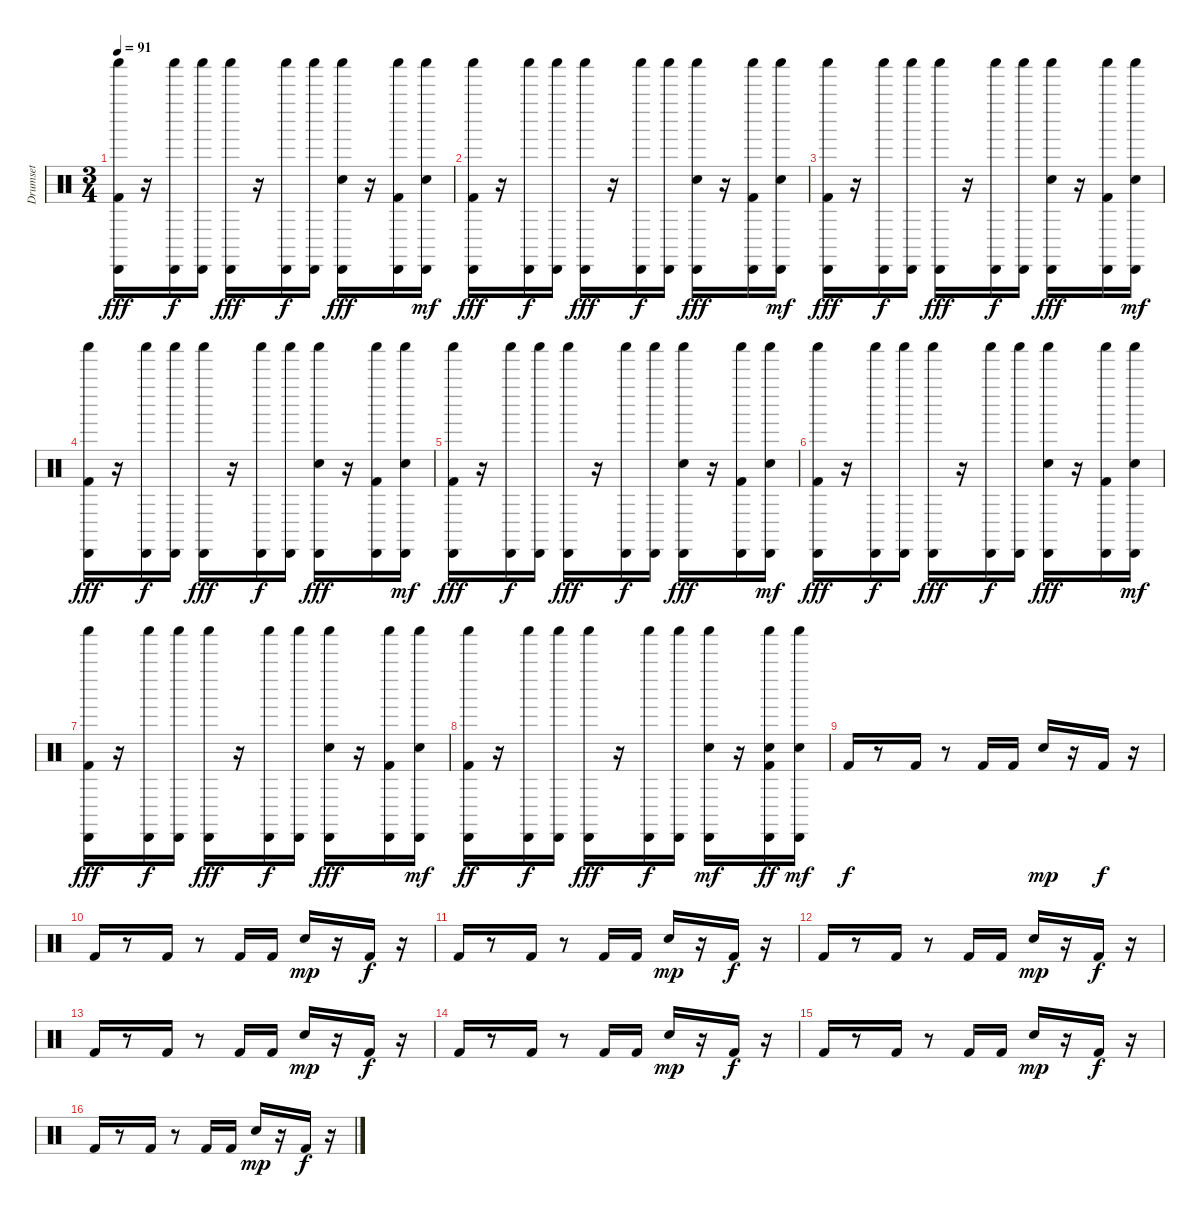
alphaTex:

\track ("Drumset" "Drumset") {instrument percussion}
\staff {score}
\articulation defaults
\ts (3 4)
\tempo 91
\clef neutral
\ks c
("Kick (hit) 2" "Shaker (hit)" "Cabasa (hit)").16{dy fff} r.16 ("Cabasa (hit)" "Shaker (hit)").16{dy f} ("Cabasa (hit)" "Shaker (hit)").16 ("Shaker (hit)" "Cabasa (hit)").16{dy fff} r.16 ("Cabasa (hit)" "Shaker (hit)").16{dy f} ("Cabasa (hit)" "Shaker (hit)").16 ("Snare (hit) 2" "Shaker (hit)" "Cabasa (hit)").16{dy fff} r.16 ("Shaker (hit)" "Cabasa (hit)" "Kick (hit) 2").16 ("Snare (hit) 2" "Cabasa (hit)" "Shaker (hit)").16{dy mf} |
("Kick (hit) 2" "Shaker (hit)" "Cabasa (hit)").16{dy fff} r.16 ("Cabasa (hit)" "Shaker (hit)").16{dy f} ("Cabasa (hit)" "Shaker (hit)").16 ("Shaker (hit)" "Cabasa (hit)").16{dy fff} r.16 ("Cabasa (hit)" "Shaker (hit)").16{dy f} ("Cabasa (hit)" "Shaker (hit)").16 ("Snare (hit) 2" "Shaker (hit)" "Cabasa (hit)").16{dy fff} r.16 ("Shaker (hit)" "Cabasa (hit)" "Kick (hit) 2").16 ("Snare (hit) 2" "Cabasa (hit)" "Shaker (hit)").16{dy mf} |
("Kick (hit) 2" "Shaker (hit)" "Cabasa (hit)").16{dy fff} r.16 ("Cabasa (hit)" "Shaker (hit)").16{dy f} ("Cabasa (hit)" "Shaker (hit)").16 ("Shaker (hit)" "Cabasa (hit)").16{dy fff} r.16 ("Cabasa (hit)" "Shaker (hit)").16{dy f} ("Cabasa (hit)" "Shaker (hit)").16 ("Snare (hit) 2" "Shaker (hit)" "Cabasa (hit)").16{dy fff} r.16 ("Shaker (hit)" "Cabasa (hit)" "Kick (hit) 2").16 ("Snare (hit) 2" "Cabasa (hit)" "Shaker (hit)").16{dy mf} |
("Kick (hit) 2" "Shaker (hit)" "Cabasa (hit)").16{dy fff} r.16 ("Cabasa (hit)" "Shaker (hit)").16{dy f} ("Cabasa (hit)" "Shaker (hit)").16 ("Shaker (hit)" "Cabasa (hit)").16{dy fff} r.16 ("Cabasa (hit)" "Shaker (hit)").16{dy f} ("Cabasa (hit)" "Shaker (hit)").16 ("Snare (hit) 2" "Shaker (hit)" "Cabasa (hit)").16{dy fff} r.16 ("Shaker (hit)" "Cabasa (hit)" "Kick (hit) 2").16 ("Snare (hit) 2" "Cabasa (hit)" "Shaker (hit)").16{dy mf} |
("Kick (hit) 2" "Shaker (hit)" "Cabasa (hit)").16{dy fff} r.16 ("Cabasa (hit)" "Shaker (hit)").16{dy f} ("Cabasa (hit)" "Shaker (hit)").16 ("Shaker (hit)" "Cabasa (hit)").16{dy fff} r.16 ("Cabasa (hit)" "Shaker (hit)").16{dy f} ("Cabasa (hit)" "Shaker (hit)").16 ("Snare (hit) 2" "Shaker (hit)" "Cabasa (hit)").16{dy fff} r.16 ("Shaker (hit)" "Cabasa (hit)" "Kick (hit) 2").16 ("Snare (hit) 2" "Cabasa (hit)" "Shaker (hit)").16{dy mf} |
("Kick (hit) 2" "Shaker (hit)" "Cabasa (hit)").16{dy fff} r.16 ("Cabasa (hit)" "Shaker (hit)").16{dy f} ("Cabasa (hit)" "Shaker (hit)").16 ("Shaker (hit)" "Cabasa (hit)").16{dy fff} r.16 ("Cabasa (hit)" "Shaker (hit)").16{dy f} ("Cabasa (hit)" "Shaker (hit)").16 ("Snare (hit) 2" "Shaker (hit)" "Cabasa (hit)").16{dy fff} r.16 ("Shaker (hit)" "Cabasa (hit)" "Kick (hit) 2").16 ("Snare (hit) 2" "Cabasa (hit)" "Shaker (hit)").16{dy mf} |
("Kick (hit) 2" "Shaker (hit)" "Cabasa (hit)").16{dy fff} r.16 ("Cabasa (hit)" "Shaker (hit)").16{dy f} ("Cabasa (hit)" "Shaker (hit)").16 ("Shaker (hit)" "Cabasa (hit)").16{dy fff} r.16 ("Cabasa (hit)" "Shaker (hit)").16{dy f} ("Cabasa (hit)" "Shaker (hit)").16 ("Snare (hit) 2" "Shaker (hit)" "Cabasa (hit)").16{dy fff} r.16 ("Shaker (hit)" "Cabasa (hit)" "Kick (hit) 2").16 ("Snare (hit) 2" "Cabasa (hit)" "Shaker (hit)").16{dy mf} |
("Cabasa (hit)" "Shaker (hit)" "Kick (hit) 2").16{dy ff} r.16 ("Cabasa (hit)" "Shaker (hit)").16{dy f} ("Cabasa (hit)" "Shaker (hit)").16 ("Cabasa (hit)" "Shaker (hit)").16{dy fff} r.16 ("Cabasa (hit)" "Shaker (hit)").16{dy f} ("Cabasa (hit)" "Shaker (hit)").16 ("Cabasa (hit)" "Shaker (hit)" "Snare (hit) 2").16{dy mf} r.16 ("Cabasa (hit)" "Shaker (hit)" "Snare (hit) 2" "Kick (hit) 2").16{dy ff} ("Cabasa (hit)" "Shaker (hit)" "Snare (hit) 2").16{dy mf} |
"Kick (hit) 2".16{dy f} r.8 "Kick (hit) 2".16 r.8 "Kick (hit) 2".16 "Kick (hit) 2".16 "Snare (hit) 2".16{dy mp} r.16 "Kick (hit) 2".16{dy f} r.16 |
"Kick (hit) 2".16 r.8 "Kick (hit) 2".16 r.8 "Kick (hit) 2".16 "Kick (hit) 2".16 "Snare (hit) 2".16{dy mp} r.16 "Kick (hit) 2".16{dy f} r.16 |
"Kick (hit) 2".16 r.8 "Kick (hit) 2".16 r.8 "Kick (hit) 2".16 "Kick (hit) 2".16 "Snare (hit) 2".16{dy mp} r.16 "Kick (hit) 2".16{dy f} r.16 |
"Kick (hit) 2".16 r.8 "Kick (hit) 2".16 r.8 "Kick (hit) 2".16 "Kick (hit) 2".16 "Snare (hit) 2".16{dy mp} r.16 "Kick (hit) 2".16{dy f} r.16 |
"Kick (hit) 2".16 r.8 "Kick (hit) 2".16 r.8 "Kick (hit) 2".16 "Kick (hit) 2".16 "Snare (hit) 2".16{dy mp} r.16 "Kick (hit) 2".16{dy f} r.16 |
"Kick (hit) 2".16 r.8 "Kick (hit) 2".16 r.8 "Kick (hit) 2".16 "Kick (hit) 2".16 "Snare (hit) 2".16{dy mp} r.16 "Kick (hit) 2".16{dy f} r.16 |
"Kick (hit) 2".16 r.8 "Kick (hit) 2".16 r.8 "Kick (hit) 2".16 "Kick (hit) 2".16 "Snare (hit) 2".16{dy mp} r.16 "Kick (hit) 2".16{dy f} r.16 |
"Kick (hit) 2".16 r.8 "Kick (hit) 2".16 r.8 "Kick (hit) 2".16 "Kick (hit) 2".16 "Snare (hit) 2".16{dy mp} r.16 "Kick (hit) 2".16{dy f} r.16
